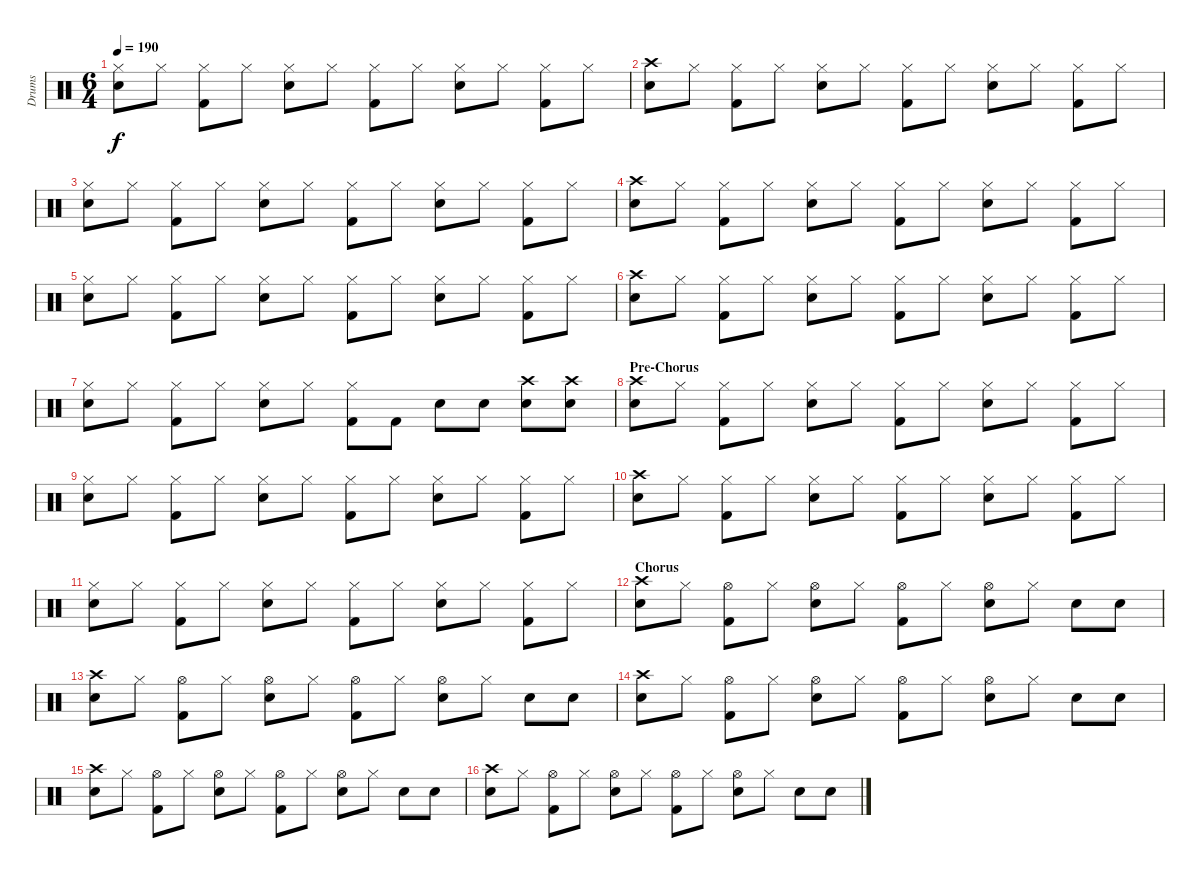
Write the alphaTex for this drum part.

\track ("Drums" "Drums") {instrument percussion}
\staff {score}
\articulation defaults
\ts (6 4)
\tempo 190
\clef neutral
\ks c
("Hi-Hat (closed)" "Snare (hit) 2").8{dy f} "Hi-Hat (closed)".8 ("Hi-Hat (closed)" "Kick (hit) 2").8 "Hi-Hat (closed)".8 ("Hi-Hat (closed)" "Snare (hit) 2").8 "Hi-Hat (closed)".8 ("Hi-Hat (closed)" "Kick (hit) 2").8 "Hi-Hat (closed)".8 ("Hi-Hat (closed)" "Snare (hit) 2").8 "Hi-Hat (closed)".8 ("Hi-Hat (closed)" "Kick (hit) 2").8 "Hi-Hat (closed)".8 |
("Crash high (hit)" "Snare (hit) 2").8 "Hi-Hat (closed)".8 ("Hi-Hat (closed)" "Kick (hit) 2").8 "Hi-Hat (closed)".8 ("Hi-Hat (closed)" "Snare (hit) 2").8 "Hi-Hat (closed)".8 ("Hi-Hat (closed)" "Kick (hit) 2").8 "Hi-Hat (closed)".8 ("Hi-Hat (closed)" "Snare (hit) 2").8 "Hi-Hat (closed)".8 ("Hi-Hat (closed)" "Kick (hit) 2").8 "Hi-Hat (closed)".8 |
("Hi-Hat (closed)" "Snare (hit) 2").8 "Hi-Hat (closed)".8 ("Hi-Hat (closed)" "Kick (hit) 2").8 "Hi-Hat (closed)".8 ("Hi-Hat (closed)" "Snare (hit) 2").8 "Hi-Hat (closed)".8 ("Hi-Hat (closed)" "Kick (hit) 2").8 "Hi-Hat (closed)".8 ("Hi-Hat (closed)" "Snare (hit) 2").8 "Hi-Hat (closed)".8 ("Hi-Hat (closed)" "Kick (hit) 2").8 "Hi-Hat (closed)".8 |
("Crash high (hit)" "Snare (hit) 2").8 "Hi-Hat (closed)".8 ("Hi-Hat (closed)" "Kick (hit) 2").8 "Hi-Hat (closed)".8 ("Hi-Hat (closed)" "Snare (hit) 2").8 "Hi-Hat (closed)".8 ("Hi-Hat (closed)" "Kick (hit) 2").8 "Hi-Hat (closed)".8 ("Hi-Hat (closed)" "Snare (hit) 2").8 "Hi-Hat (closed)".8 ("Hi-Hat (closed)" "Kick (hit) 2").8 "Hi-Hat (closed)".8 |
("Hi-Hat (closed)" "Snare (hit) 2").8 "Hi-Hat (closed)".8 ("Hi-Hat (closed)" "Kick (hit) 2").8 "Hi-Hat (closed)".8 ("Hi-Hat (closed)" "Snare (hit) 2").8 "Hi-Hat (closed)".8 ("Hi-Hat (closed)" "Kick (hit) 2").8 "Hi-Hat (closed)".8 ("Hi-Hat (closed)" "Snare (hit) 2").8 "Hi-Hat (closed)".8 ("Hi-Hat (closed)" "Kick (hit) 2").8 "Hi-Hat (closed)".8 |
("Crash high (hit)" "Snare (hit) 2").8 "Hi-Hat (closed)".8 ("Hi-Hat (closed)" "Kick (hit) 2").8 "Hi-Hat (closed)".8 ("Hi-Hat (closed)" "Snare (hit) 2").8 "Hi-Hat (closed)".8 ("Hi-Hat (closed)" "Kick (hit) 2").8 "Hi-Hat (closed)".8 ("Hi-Hat (closed)" "Snare (hit) 2").8 "Hi-Hat (closed)".8 ("Hi-Hat (closed)" "Kick (hit) 2").8 "Hi-Hat (closed)".8 |
("Hi-Hat (closed)" "Snare (hit) 2").8 "Hi-Hat (closed)".8 ("Hi-Hat (closed)" "Kick (hit) 2").8 "Hi-Hat (closed)".8 ("Hi-Hat (closed)" "Snare (hit) 2").8 "Hi-Hat (closed)".8 ("Hi-Hat (closed)" "Kick (hit) 2").8 "Kick (hit) 2".8 "Snare (hit) 2".8 "Snare (hit) 2".8 ("Crash high (hit)" "Electric Snare (hit)").8 ("Crash high (hit)" "Electric Snare (hit)").8 |
\section ("" "Pre-Chorus")
("Crash high (hit)" "Snare (hit) 2").8 "Hi-Hat (closed)".8 ("Hi-Hat (closed)" "Kick (hit) 2").8 "Hi-Hat (closed)".8 ("Hi-Hat (closed)" "Snare (hit) 2").8 "Hi-Hat (closed)".8 ("Hi-Hat (closed)" "Kick (hit) 2").8 "Hi-Hat (closed)".8 ("Hi-Hat (closed)" "Snare (hit) 2").8 "Hi-Hat (closed)".8 ("Hi-Hat (closed)" "Kick (hit) 2").8 "Hi-Hat (closed)".8 |
("Hi-Hat (closed)" "Snare (hit) 2").8 "Hi-Hat (closed)".8 ("Hi-Hat (closed)" "Kick (hit) 2").8 "Hi-Hat (closed)".8 ("Hi-Hat (closed)" "Snare (hit) 2").8 "Hi-Hat (closed)".8 ("Hi-Hat (closed)" "Kick (hit) 2").8 "Hi-Hat (closed)".8 ("Hi-Hat (closed)" "Snare (hit) 2").8 "Hi-Hat (closed)".8 ("Hi-Hat (closed)" "Kick (hit) 2").8 "Hi-Hat (closed)".8 |
("Crash high (hit)" "Snare (hit) 2").8 "Hi-Hat (closed)".8 ("Hi-Hat (closed)" "Kick (hit) 2").8 "Hi-Hat (closed)".8 ("Hi-Hat (closed)" "Snare (hit) 2").8 "Hi-Hat (closed)".8 ("Hi-Hat (closed)" "Kick (hit) 2").8 "Hi-Hat (closed)".8 ("Hi-Hat (closed)" "Snare (hit) 2").8 "Hi-Hat (closed)".8 ("Hi-Hat (closed)" "Kick (hit) 2").8 "Hi-Hat (closed)".8 |
("Hi-Hat (closed)" "Snare (hit) 2").8 "Hi-Hat (closed)".8 ("Hi-Hat (closed)" "Kick (hit) 2").8 "Hi-Hat (closed)".8 ("Hi-Hat (closed)" "Snare (hit) 2").8 "Hi-Hat (closed)".8 ("Hi-Hat (closed)" "Kick (hit) 2").8 "Hi-Hat (closed)".8 ("Hi-Hat (closed)" "Snare (hit) 2").8 "Hi-Hat (closed)".8 ("Hi-Hat (closed)" "Kick (hit) 2").8 "Hi-Hat (closed)".8 |
\section ("" "Chorus")
("Crash high (hit)" "Snare (hit) 2").8 "Hi-Hat (closed)".8 ("Hi-Hat (open)" "Kick (hit) 2").8 "Hi-Hat (closed)".8 ("Hi-Hat (open)" "Snare (hit) 2").8 "Hi-Hat (closed)".8 ("Hi-Hat (open)" "Kick (hit) 2").8 "Hi-Hat (closed)".8 ("Hi-Hat (open)" "Snare (hit) 2").8 "Hi-Hat (closed)".8 "Snare (hit) 2".8 "Snare (hit) 2".8 |
("Crash high (hit)" "Snare (hit) 2").8 "Hi-Hat (closed)".8 ("Hi-Hat (open)" "Kick (hit) 2").8 "Hi-Hat (closed)".8 ("Hi-Hat (open)" "Snare (hit) 2").8 "Hi-Hat (closed)".8 ("Hi-Hat (open)" "Kick (hit) 2").8 "Hi-Hat (closed)".8 ("Hi-Hat (open)" "Snare (hit) 2").8 "Hi-Hat (closed)".8 "Snare (hit) 2".8 "Snare (hit) 2".8 |
("Crash high (hit)" "Snare (hit) 2").8 "Hi-Hat (closed)".8 ("Hi-Hat (open)" "Kick (hit) 2").8 "Hi-Hat (closed)".8 ("Hi-Hat (open)" "Snare (hit) 2").8 "Hi-Hat (closed)".8 ("Hi-Hat (open)" "Kick (hit) 2").8 "Hi-Hat (closed)".8 ("Hi-Hat (open)" "Snare (hit) 2").8 "Hi-Hat (closed)".8 "Snare (hit) 2".8 "Snare (hit) 2".8 |
("Crash high (hit)" "Snare (hit) 2").8 "Hi-Hat (closed)".8 ("Hi-Hat (open)" "Kick (hit) 2").8 "Hi-Hat (closed)".8 ("Hi-Hat (open)" "Snare (hit) 2").8 "Hi-Hat (closed)".8 ("Hi-Hat (open)" "Kick (hit) 2").8 "Hi-Hat (closed)".8 ("Hi-Hat (open)" "Snare (hit) 2").8 "Hi-Hat (closed)".8 "Snare (hit) 2".8 "Snare (hit) 2".8 |
("Crash high (hit)" "Snare (hit) 2").8 "Hi-Hat (closed)".8 ("Hi-Hat (open)" "Kick (hit) 2").8 "Hi-Hat (closed)".8 ("Hi-Hat (open)" "Snare (hit) 2").8 "Hi-Hat (closed)".8 ("Hi-Hat (open)" "Kick (hit) 2").8 "Hi-Hat (closed)".8 ("Hi-Hat (open)" "Snare (hit) 2").8 "Hi-Hat (closed)".8 "Snare (hit) 2".8 "Snare (hit) 2".8
